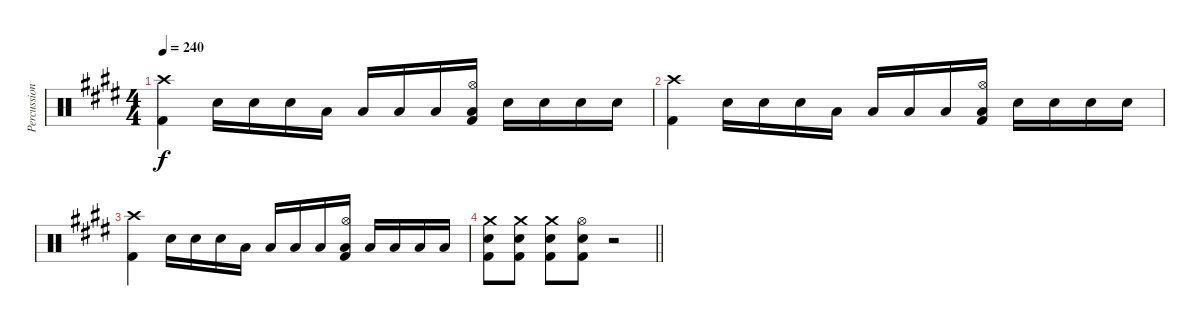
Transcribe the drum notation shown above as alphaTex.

\track ("Percussion" "Percussion") {instrument percussion}
\staff {score}
\articulation defaults
\ts (4 4)
\tempo 240
\clef neutral
\ks e
("Kick (hit) 2" "Crash high (hit)").4{dy f} "Snare (hit) 2".16 "Snare (hit) 2".16 "Snare (hit) 2".16 "Low Floor Tom (hit)".16 "Low Floor Tom (hit)".16 "Low Floor Tom (hit)".16 "Low Floor Tom (hit)".16 ("Hi-Hat (open)" "Low Tom (hit)" "Kick (hit) 2").16 "Snare (hit) 2".16 "Snare (hit) 2".16 "Snare (hit) 2".16 "Snare (hit) 2".16 |
("Kick (hit) 2" "Crash high (hit)").4 "Snare (hit) 2".16 "Snare (hit) 2".16 "Snare (hit) 2".16 "Low Floor Tom (hit)".16 "Low Floor Tom (hit)".16 "Low Floor Tom (hit)".16 "Low Floor Tom (hit)".16 ("Hi-Hat (open)" "Low Tom (hit)" "Kick (hit) 2").16 "Snare (hit) 2".16 "Snare (hit) 2".16 "Snare (hit) 2".16 "Snare (hit) 2".16 |
("Kick (hit) 2" "Crash high (hit)").4 "Snare (hit) 2".16 "Snare (hit) 2".16 "Snare (hit) 2".16 "Low Tom (hit)".16 "Low Tom (hit)".16 "Low Tom (hit)".16 "Low Tom (hit)".16 ("Hi-Hat (open)" "Low Tom (hit)" "Kick (hit) 2").16 "Low Floor Tom (hit)".16 "Low Floor Tom (hit)".16 "Low Floor Tom (hit)".16 "Low Floor Tom (hit)".16 |
\barLineRight lightlight
("Crash medium (hit)" "Snare (hit) 2" "Kick (hit) 2").8 ("Crash medium (hit)" "Snare (hit) 2" "Kick (hit) 2").8 ("Crash medium (hit)" "Snare (hit) 2" "Kick (hit) 2").8 ("Hi-Hat (open)" "Snare (hit) 2" "Kick (hit) 2").8 r.2
